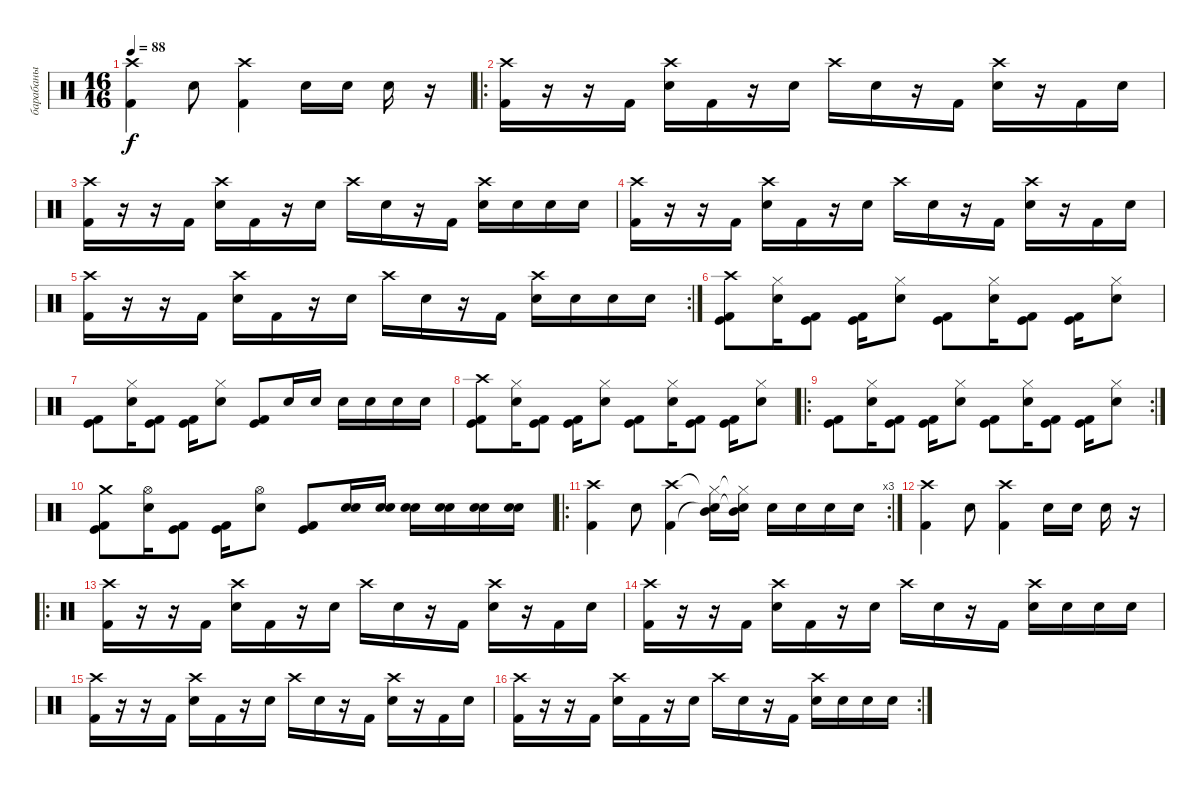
\track ("барабаны" "барабаны") {instrument percussion}
\staff {score}
\articulation defaults
\ts (16 16)
\tempo 88
\clef neutral
\ks c
("Crash high (hit)" "Kick (hit) 2").4{dy f} "Electric Snare (hit)".8 ("Crash high (hit)" "Kick (hit) 2").4 "Electric Snare (hit)".16 "Electric Snare (hit)".16 "Electric Snare (hit)".16 r.16 |
\ro
("Crash high (hit)" "Kick (hit) 2").16{volume 16} r.16 r.16 "Kick (hit) 2".16 ("Crash high (hit)" "Electric Snare (hit)").16 "Kick (hit) 2".16 r.16 "Electric Snare (hit)".16 "Crash high (hit)".16 "Electric Snare (hit)".16 r.16 "Kick (hit) 2".16 ("Crash high (hit)" "Electric Snare (hit)").16 r.16 "Kick (hit) 2".16 "Electric Snare (hit)".16 |
("Crash high (hit)" "Kick (hit) 2").16 r.16 r.16 "Kick (hit) 2".16 ("Crash high (hit)" "Electric Snare (hit)").16 "Kick (hit) 2".16 r.16 "Electric Snare (hit)".16 "Crash high (hit)".16 "Electric Snare (hit)".16 r.16 "Kick (hit) 2".16 ("Crash high (hit)" "Electric Snare (hit)").16 "Electric Snare (hit)".16 "Electric Snare (hit)".16 "Electric Snare (hit)".16 |
("Crash high (hit)" "Kick (hit) 2").16 r.16 r.16 "Kick (hit) 2".16 ("Crash high (hit)" "Electric Snare (hit)").16 "Kick (hit) 2".16 r.16 "Electric Snare (hit)".16 "Crash high (hit)".16 "Electric Snare (hit)".16 r.16 "Kick (hit) 2".16 ("Crash high (hit)" "Electric Snare (hit)").16 r.16 "Kick (hit) 2".16 "Electric Snare (hit)".16 |
\rc 2
("Crash high (hit)" "Kick (hit) 2").16 r.16 r.16 "Kick (hit) 2".16 ("Crash high (hit)" "Electric Snare (hit)").16 "Kick (hit) 2".16 r.16 "Electric Snare (hit)".16 "Crash high (hit)".16 "Electric Snare (hit)".16 r.16 "Kick (hit) 2".16 ("Crash high (hit)" "Electric Snare (hit)").16 "Electric Snare (hit)".16 "Electric Snare (hit)".16 "Electric Snare (hit)".16 |
("Crash high (hit)" "Kick (hit) 2" "Kick (hit)").8 ("Hi-Hat (closed)" "Electric Snare (hit)").16 ("Kick (hit)" "Kick (hit) 2").8 ("Kick (hit)" "Kick (hit) 2").16 ("Hi-Hat (closed)" "Electric Snare (hit)").8 ("Kick (hit) 2" "Kick (hit)").8 ("Hi-Hat (closed)" "Electric Snare (hit)").16 ("Kick (hit)" "Kick (hit) 2").8 ("Kick (hit)" "Kick (hit) 2").16 ("Hi-Hat (closed)" "Electric Snare (hit)").8 |
("Kick (hit) 2" "Kick (hit)").8 ("Hi-Hat (closed)" "Electric Snare (hit)").16 ("Kick (hit)" "Kick (hit) 2").8 ("Kick (hit)" "Kick (hit) 2").16 ("Hi-Hat (closed)" "Electric Snare (hit)").8 ("Kick (hit) 2" "Kick (hit)").8 "Electric Snare (hit)".16 "Electric Snare (hit)".16 "Electric Snare (hit)".16 "Electric Snare (hit)".16 "Electric Snare (hit)".16 "Electric Snare (hit)".16 |
("Crash high (hit)" "Kick (hit) 2" "Kick (hit)").8 ("Hi-Hat (closed)" "Electric Snare (hit)").16 ("Kick (hit)" "Kick (hit) 2").8 ("Kick (hit)" "Kick (hit) 2").16 ("Hi-Hat (closed)" "Electric Snare (hit)").8 ("Kick (hit) 2" "Kick (hit)").8 ("Hi-Hat (closed)" "Electric Snare (hit)").16 ("Kick (hit)" "Kick (hit) 2").8 ("Kick (hit)" "Kick (hit) 2").16 ("Hi-Hat (closed)" "Electric Snare (hit)").8 |
\ro
\rc 2
("Kick (hit) 2" "Kick (hit)").8 ("Hi-Hat (closed)" "Electric Snare (hit)").16 ("Kick (hit)" "Kick (hit) 2").8 ("Kick (hit)" "Kick (hit) 2").16 ("Hi-Hat (closed)" "Electric Snare (hit)").8 ("Kick (hit) 2" "Kick (hit)").8 ("Hi-Hat (closed)" "Electric Snare (hit)").16 ("Kick (hit)" "Kick (hit) 2").8 ("Kick (hit)" "Kick (hit) 2").16 ("Hi-Hat (closed)" "Electric Snare (hit)").8 |
("Crash medium (hit)" "Kick (hit) 2" "Kick (hit)").8 ("Hi-Hat (open)" "Electric Snare (hit)").16 ("Kick (hit)" "Kick (hit) 2").8 ("Kick (hit)" "Kick (hit) 2").16 ("Hi-Hat (open)" "Electric Snare (hit)").8 ("Kick (hit) 2" "Kick (hit)").8 ("Snare (hit) 2" "Electric Snare (hit)").16 ("Snare (hit) 2" "Electric Snare (hit)").16 ("Snare (hit) 2" "Electric Snare (hit)").16 ("Snare (hit) 2" "Electric Snare (hit)").16 ("Snare (hit) 2" "Electric Snare (hit)").16 ("Snare (hit) 2" "Electric Snare (hit)").16 |
\ro
\rc 3
("Crash high (hit)" "Kick (hit) 2").4 "Electric Snare (hit)".8 ("Crash high (hit)" "Kick (hit) 2").4 ("Hi-Hat (closed)"{t} "Snare (hit)"{t} "Mid Tom (hit)").16 ("Hi-Hat (closed)"{t} "Snare (hit)"{t} "Mid Tom (hit)").16 "Electric Snare (hit)".16 "Electric Snare (hit)".16 "Electric Snare (hit)".16 "Electric Snare (hit)".16 |
("Crash high (hit)" "Kick (hit) 2").4 "Electric Snare (hit)".8 ("Crash high (hit)" "Kick (hit) 2").4 "Electric Snare (hit)".16 "Electric Snare (hit)".16 "Electric Snare (hit)".16 r.16 |
\ro
("Crash high (hit)" "Kick (hit) 2").16{volume 16} r.16 r.16 "Kick (hit) 2".16 ("Crash high (hit)" "Electric Snare (hit)").16 "Kick (hit) 2".16 r.16 "Electric Snare (hit)".16 "Crash high (hit)".16 "Electric Snare (hit)".16 r.16 "Kick (hit) 2".16 ("Crash high (hit)" "Electric Snare (hit)").16 r.16 "Kick (hit) 2".16 "Electric Snare (hit)".16 |
("Crash high (hit)" "Kick (hit) 2").16 r.16 r.16 "Kick (hit) 2".16 ("Crash high (hit)" "Electric Snare (hit)").16 "Kick (hit) 2".16 r.16 "Electric Snare (hit)".16 "Crash high (hit)".16 "Electric Snare (hit)".16 r.16 "Kick (hit) 2".16 ("Crash high (hit)" "Electric Snare (hit)").16 "Electric Snare (hit)".16 "Electric Snare (hit)".16 "Electric Snare (hit)".16 |
("Crash high (hit)" "Kick (hit) 2").16 r.16 r.16 "Kick (hit) 2".16 ("Crash high (hit)" "Electric Snare (hit)").16 "Kick (hit) 2".16 r.16 "Electric Snare (hit)".16 "Crash high (hit)".16 "Electric Snare (hit)".16 r.16 "Kick (hit) 2".16 ("Crash high (hit)" "Electric Snare (hit)").16 r.16 "Kick (hit) 2".16 "Electric Snare (hit)".16 |
\rc 2
("Crash high (hit)" "Kick (hit) 2").16 r.16 r.16 "Kick (hit) 2".16 ("Crash high (hit)" "Electric Snare (hit)").16 "Kick (hit) 2".16 r.16 "Electric Snare (hit)".16 "Crash high (hit)".16 "Electric Snare (hit)".16 r.16 "Kick (hit) 2".16 ("Crash high (hit)" "Electric Snare (hit)").16 "Electric Snare (hit)".16 "Electric Snare (hit)".16 "Electric Snare (hit)".16
